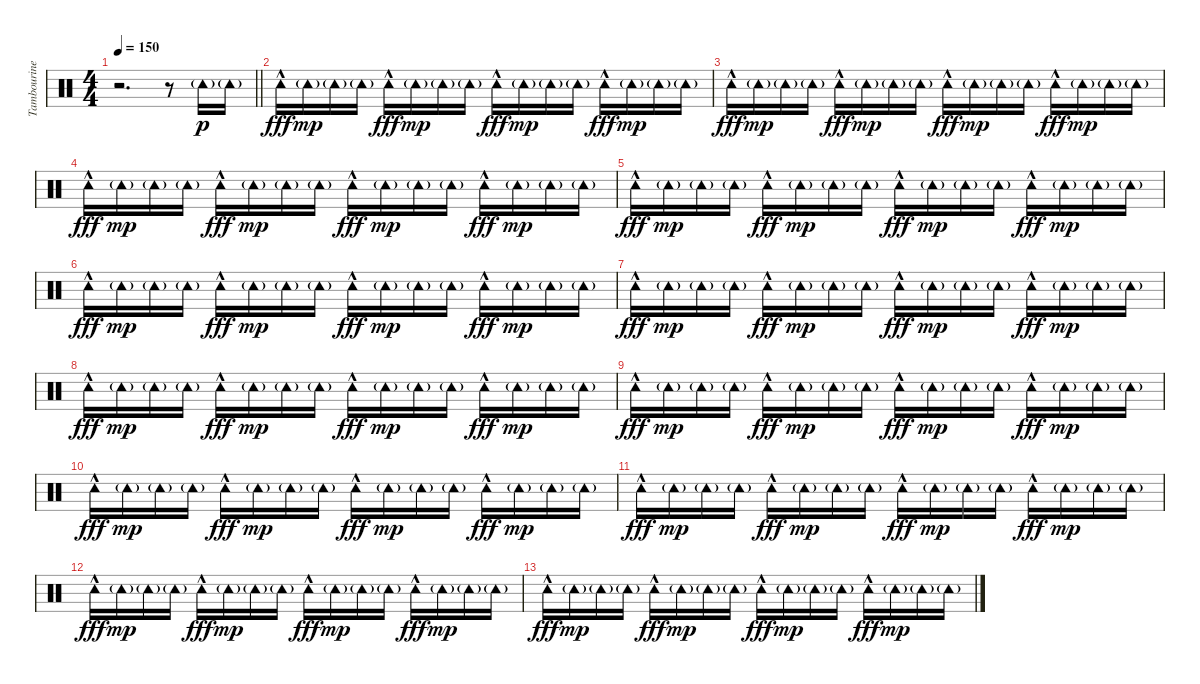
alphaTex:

\track ("Tambourine" "Tambourine") {instrument percussion}
\staff {score}
\articulation defaults
\ts (4 4)
\tempo 150
\clef neutral
\barLineRight lightlight
\ks c
r.2{d dy mp} r.8 "Tambourine (hit)"{g}.16{dy p} "Tambourine (hit)"{g}.16 |
"Tambourine (hit)"{hac}.16{dy fff} "Tambourine (hit)"{g}.16{dy mp} "Tambourine (hit)"{g}.16 "Tambourine (hit)"{g}.16 "Tambourine (hit)"{hac}.16{dy fff} "Tambourine (hit)"{g}.16{dy mp} "Tambourine (hit)"{g}.16 "Tambourine (hit)"{g}.16 "Tambourine (hit)"{hac}.16{dy fff} "Tambourine (hit)"{g}.16{dy mp} "Tambourine (hit)"{g}.16 "Tambourine (hit)"{g}.16 "Tambourine (hit)"{hac}.16{dy fff} "Tambourine (hit)"{g}.16{dy mp} "Tambourine (hit)"{g}.16 "Tambourine (hit)"{g}.16 |
"Tambourine (hit)"{hac}.16{dy fff} "Tambourine (hit)"{g}.16{dy mp} "Tambourine (hit)"{g}.16 "Tambourine (hit)"{g}.16 "Tambourine (hit)"{hac}.16{dy fff} "Tambourine (hit)"{g}.16{dy mp} "Tambourine (hit)"{g}.16 "Tambourine (hit)"{g}.16 "Tambourine (hit)"{hac}.16{dy fff} "Tambourine (hit)"{g}.16{dy mp} "Tambourine (hit)"{g}.16 "Tambourine (hit)"{g}.16 "Tambourine (hit)"{hac}.16{dy fff} "Tambourine (hit)"{g}.16{dy mp} "Tambourine (hit)"{g}.16 "Tambourine (hit)"{g}.16 |
"Tambourine (hit)"{hac}.16{dy fff} "Tambourine (hit)"{g}.16{dy mp} "Tambourine (hit)"{g}.16 "Tambourine (hit)"{g}.16 "Tambourine (hit)"{hac}.16{dy fff} "Tambourine (hit)"{g}.16{dy mp} "Tambourine (hit)"{g}.16 "Tambourine (hit)"{g}.16 "Tambourine (hit)"{hac}.16{dy fff} "Tambourine (hit)"{g}.16{dy mp} "Tambourine (hit)"{g}.16 "Tambourine (hit)"{g}.16 "Tambourine (hit)"{hac}.16{dy fff} "Tambourine (hit)"{g}.16{dy mp} "Tambourine (hit)"{g}.16 "Tambourine (hit)"{g}.16 |
"Tambourine (hit)"{hac}.16{dy fff} "Tambourine (hit)"{g}.16{dy mp} "Tambourine (hit)"{g}.16 "Tambourine (hit)"{g}.16 "Tambourine (hit)"{hac}.16{dy fff} "Tambourine (hit)"{g}.16{dy mp} "Tambourine (hit)"{g}.16 "Tambourine (hit)"{g}.16 "Tambourine (hit)"{hac}.16{dy fff} "Tambourine (hit)"{g}.16{dy mp} "Tambourine (hit)"{g}.16 "Tambourine (hit)"{g}.16 "Tambourine (hit)"{hac}.16{dy fff} "Tambourine (hit)"{g}.16{dy mp} "Tambourine (hit)"{g}.16 "Tambourine (hit)"{g}.16 |
"Tambourine (hit)"{hac}.16{dy fff} "Tambourine (hit)"{g}.16{dy mp} "Tambourine (hit)"{g}.16 "Tambourine (hit)"{g}.16 "Tambourine (hit)"{hac}.16{dy fff} "Tambourine (hit)"{g}.16{dy mp} "Tambourine (hit)"{g}.16 "Tambourine (hit)"{g}.16 "Tambourine (hit)"{hac}.16{dy fff} "Tambourine (hit)"{g}.16{dy mp} "Tambourine (hit)"{g}.16 "Tambourine (hit)"{g}.16 "Tambourine (hit)"{hac}.16{dy fff} "Tambourine (hit)"{g}.16{dy mp} "Tambourine (hit)"{g}.16 "Tambourine (hit)"{g}.16 |
"Tambourine (hit)"{hac}.16{dy fff} "Tambourine (hit)"{g}.16{dy mp} "Tambourine (hit)"{g}.16 "Tambourine (hit)"{g}.16 "Tambourine (hit)"{hac}.16{dy fff} "Tambourine (hit)"{g}.16{dy mp} "Tambourine (hit)"{g}.16 "Tambourine (hit)"{g}.16 "Tambourine (hit)"{hac}.16{dy fff} "Tambourine (hit)"{g}.16{dy mp} "Tambourine (hit)"{g}.16 "Tambourine (hit)"{g}.16 "Tambourine (hit)"{hac}.16{dy fff} "Tambourine (hit)"{g}.16{dy mp} "Tambourine (hit)"{g}.16 "Tambourine (hit)"{g}.16 |
"Tambourine (hit)"{hac}.16{dy fff} "Tambourine (hit)"{g}.16{dy mp} "Tambourine (hit)"{g}.16 "Tambourine (hit)"{g}.16 "Tambourine (hit)"{hac}.16{dy fff} "Tambourine (hit)"{g}.16{dy mp} "Tambourine (hit)"{g}.16 "Tambourine (hit)"{g}.16 "Tambourine (hit)"{hac}.16{dy fff} "Tambourine (hit)"{g}.16{dy mp} "Tambourine (hit)"{g}.16 "Tambourine (hit)"{g}.16 "Tambourine (hit)"{hac}.16{dy fff} "Tambourine (hit)"{g}.16{dy mp} "Tambourine (hit)"{g}.16 "Tambourine (hit)"{g}.16 |
"Tambourine (hit)"{hac}.16{dy fff} "Tambourine (hit)"{g}.16{dy mp} "Tambourine (hit)"{g}.16 "Tambourine (hit)"{g}.16 "Tambourine (hit)"{hac}.16{dy fff} "Tambourine (hit)"{g}.16{dy mp} "Tambourine (hit)"{g}.16 "Tambourine (hit)"{g}.16 "Tambourine (hit)"{hac}.16{dy fff} "Tambourine (hit)"{g}.16{dy mp} "Tambourine (hit)"{g}.16 "Tambourine (hit)"{g}.16 "Tambourine (hit)"{hac}.16{dy fff} "Tambourine (hit)"{g}.16{dy mp} "Tambourine (hit)"{g}.16 "Tambourine (hit)"{g}.16 |
"Tambourine (hit)"{hac}.16{dy fff} "Tambourine (hit)"{g}.16{dy mp} "Tambourine (hit)"{g}.16 "Tambourine (hit)"{g}.16 "Tambourine (hit)"{hac}.16{dy fff} "Tambourine (hit)"{g}.16{dy mp} "Tambourine (hit)"{g}.16 "Tambourine (hit)"{g}.16 "Tambourine (hit)"{hac}.16{dy fff} "Tambourine (hit)"{g}.16{dy mp} "Tambourine (hit)"{g}.16 "Tambourine (hit)"{g}.16 "Tambourine (hit)"{hac}.16{dy fff} "Tambourine (hit)"{g}.16{dy mp} "Tambourine (hit)"{g}.16 "Tambourine (hit)"{g}.16 |
"Tambourine (hit)"{hac}.16{dy fff} "Tambourine (hit)"{g}.16{dy mp} "Tambourine (hit)"{g}.16 "Tambourine (hit)"{g}.16 "Tambourine (hit)"{hac}.16{dy fff} "Tambourine (hit)"{g}.16{dy mp} "Tambourine (hit)"{g}.16 "Tambourine (hit)"{g}.16 "Tambourine (hit)"{hac}.16{dy fff} "Tambourine (hit)"{g}.16{dy mp} "Tambourine (hit)"{g}.16 "Tambourine (hit)"{g}.16 "Tambourine (hit)"{hac}.16{dy fff} "Tambourine (hit)"{g}.16{dy mp} "Tambourine (hit)"{g}.16 "Tambourine (hit)"{g}.16 |
"Tambourine (hit)"{hac}.16{dy fff} "Tambourine (hit)"{g}.16{dy mp} "Tambourine (hit)"{g}.16 "Tambourine (hit)"{g}.16 "Tambourine (hit)"{hac}.16{dy fff} "Tambourine (hit)"{g}.16{dy mp} "Tambourine (hit)"{g}.16 "Tambourine (hit)"{g}.16 "Tambourine (hit)"{hac}.16{dy fff} "Tambourine (hit)"{g}.16{dy mp} "Tambourine (hit)"{g}.16 "Tambourine (hit)"{g}.16 "Tambourine (hit)"{hac}.16{dy fff} "Tambourine (hit)"{g}.16{dy mp} "Tambourine (hit)"{g}.16 "Tambourine (hit)"{g}.16 |
"Tambourine (hit)"{hac}.16{dy fff} "Tambourine (hit)"{g}.16{dy mp} "Tambourine (hit)"{g}.16 "Tambourine (hit)"{g}.16 "Tambourine (hit)"{hac}.16{dy fff} "Tambourine (hit)"{g}.16{dy mp} "Tambourine (hit)"{g}.16 "Tambourine (hit)"{g}.16 "Tambourine (hit)"{hac}.16{dy fff} "Tambourine (hit)"{g}.16{dy mp} "Tambourine (hit)"{g}.16 "Tambourine (hit)"{g}.16 "Tambourine (hit)"{hac}.16{dy fff} "Tambourine (hit)"{g}.16{dy mp} "Tambourine (hit)"{g}.16 "Tambourine (hit)"{g}.16
